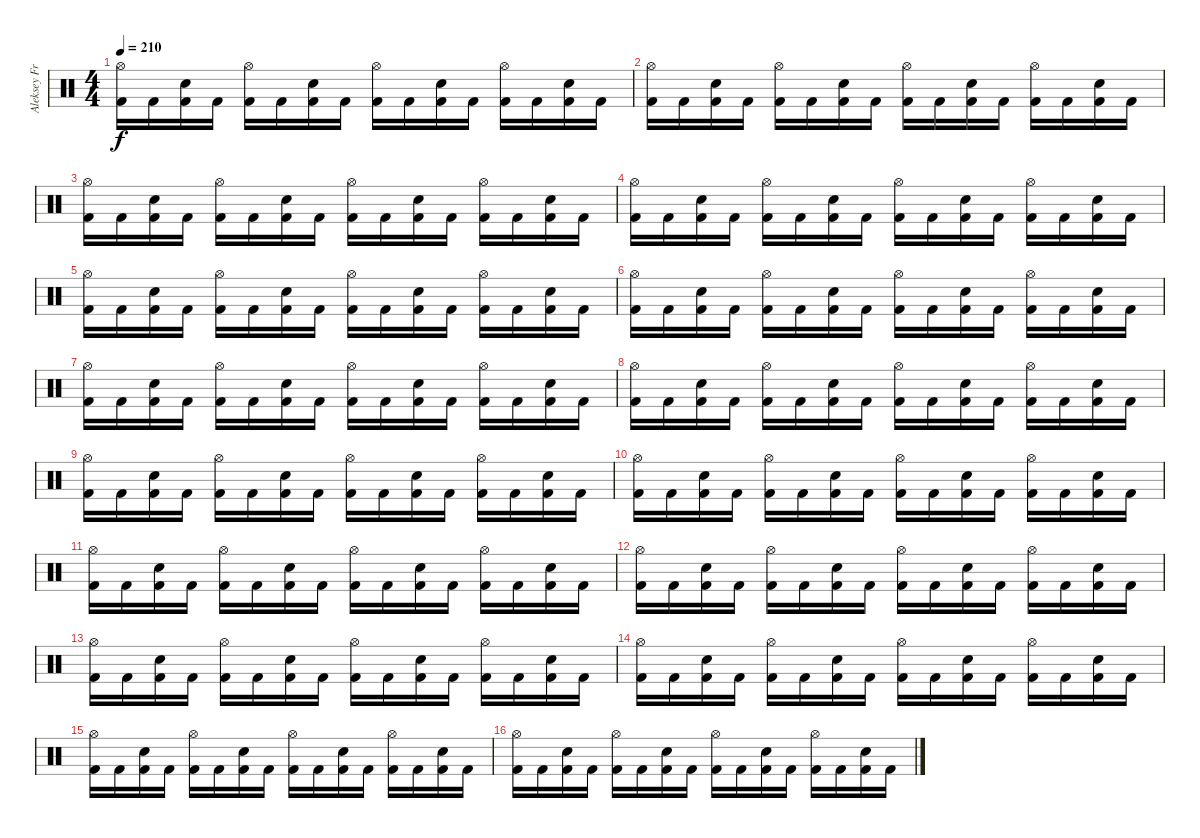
\track ("Aleksey Frolov" "Aleksey Fr") {instrument percussion}
\staff {score}
\articulation defaults
\ts (4 4)
\tempo 210
\clef neutral
\ks c
("Kick (hit) 2" "Hi-Hat (open)").16{dy f} "Kick (hit) 2".16 ("Kick (hit) 2" "Electric Snare (hit)").16 "Kick (hit) 2".16 ("Kick (hit) 2" "Hi-Hat (open)").16 "Kick (hit) 2".16 ("Kick (hit) 2" "Electric Snare (hit)").16 "Kick (hit) 2".16 ("Kick (hit) 2" "Hi-Hat (open)").16 "Kick (hit) 2".16 ("Kick (hit) 2" "Electric Snare (hit)").16 "Kick (hit) 2".16 ("Kick (hit) 2" "Hi-Hat (open)").16 "Kick (hit) 2".16 ("Kick (hit) 2" "Electric Snare (hit)").16 "Kick (hit) 2".16 |
("Kick (hit) 2" "Hi-Hat (open)").16 "Kick (hit) 2".16 ("Kick (hit) 2" "Electric Snare (hit)").16 "Kick (hit) 2".16 ("Kick (hit) 2" "Hi-Hat (open)").16 "Kick (hit) 2".16 ("Kick (hit) 2" "Electric Snare (hit)").16 "Kick (hit) 2".16 ("Kick (hit) 2" "Hi-Hat (open)").16 "Kick (hit) 2".16 ("Kick (hit) 2" "Electric Snare (hit)").16 "Kick (hit) 2".16 ("Kick (hit) 2" "Hi-Hat (open)").16 "Kick (hit) 2".16 ("Kick (hit) 2" "Electric Snare (hit)").16 "Kick (hit) 2".16 |
("Kick (hit) 2" "Hi-Hat (open)").16 "Kick (hit) 2".16 ("Kick (hit) 2" "Electric Snare (hit)").16 "Kick (hit) 2".16 ("Kick (hit) 2" "Hi-Hat (open)").16 "Kick (hit) 2".16 ("Kick (hit) 2" "Electric Snare (hit)").16 "Kick (hit) 2".16 ("Kick (hit) 2" "Hi-Hat (open)").16 "Kick (hit) 2".16 ("Kick (hit) 2" "Electric Snare (hit)").16 "Kick (hit) 2".16 ("Kick (hit) 2" "Hi-Hat (open)").16 "Kick (hit) 2".16 ("Kick (hit) 2" "Electric Snare (hit)").16 "Kick (hit) 2".16 |
("Kick (hit) 2" "Hi-Hat (open)").16 "Kick (hit) 2".16 ("Kick (hit) 2" "Electric Snare (hit)").16 "Kick (hit) 2".16 ("Kick (hit) 2" "Hi-Hat (open)").16 "Kick (hit) 2".16 ("Kick (hit) 2" "Electric Snare (hit)").16 "Kick (hit) 2".16 ("Kick (hit) 2" "Hi-Hat (open)").16 "Kick (hit) 2".16 ("Kick (hit) 2" "Electric Snare (hit)").16 "Kick (hit) 2".16 ("Kick (hit) 2" "Hi-Hat (open)").16 "Kick (hit) 2".16 ("Kick (hit) 2" "Electric Snare (hit)").16 "Kick (hit) 2".16 |
("Kick (hit) 2" "Hi-Hat (open)").16 "Kick (hit) 2".16 ("Kick (hit) 2" "Electric Snare (hit)").16 "Kick (hit) 2".16 ("Kick (hit) 2" "Hi-Hat (open)").16 "Kick (hit) 2".16 ("Kick (hit) 2" "Electric Snare (hit)").16 "Kick (hit) 2".16 ("Kick (hit) 2" "Hi-Hat (open)").16 "Kick (hit) 2".16 ("Kick (hit) 2" "Electric Snare (hit)").16 "Kick (hit) 2".16 ("Kick (hit) 2" "Hi-Hat (open)").16 "Kick (hit) 2".16 ("Kick (hit) 2" "Electric Snare (hit)").16 "Kick (hit) 2".16 |
("Kick (hit) 2" "Hi-Hat (open)").16 "Kick (hit) 2".16 ("Kick (hit) 2" "Electric Snare (hit)").16 "Kick (hit) 2".16 ("Kick (hit) 2" "Hi-Hat (open)").16 "Kick (hit) 2".16 ("Kick (hit) 2" "Electric Snare (hit)").16 "Kick (hit) 2".16 ("Kick (hit) 2" "Hi-Hat (open)").16 "Kick (hit) 2".16 ("Kick (hit) 2" "Electric Snare (hit)").16 "Kick (hit) 2".16 ("Kick (hit) 2" "Hi-Hat (open)").16 "Kick (hit) 2".16 ("Kick (hit) 2" "Electric Snare (hit)").16 "Kick (hit) 2".16 |
("Kick (hit) 2" "Hi-Hat (open)").16 "Kick (hit) 2".16 ("Kick (hit) 2" "Electric Snare (hit)").16 "Kick (hit) 2".16 ("Kick (hit) 2" "Hi-Hat (open)").16 "Kick (hit) 2".16 ("Kick (hit) 2" "Electric Snare (hit)").16 "Kick (hit) 2".16 ("Kick (hit) 2" "Hi-Hat (open)").16 "Kick (hit) 2".16 ("Kick (hit) 2" "Electric Snare (hit)").16 "Kick (hit) 2".16 ("Kick (hit) 2" "Hi-Hat (open)").16 "Kick (hit) 2".16 ("Kick (hit) 2" "Electric Snare (hit)").16 "Kick (hit) 2".16 |
("Kick (hit) 2" "Hi-Hat (open)").16 "Kick (hit) 2".16 ("Kick (hit) 2" "Electric Snare (hit)").16 "Kick (hit) 2".16 ("Kick (hit) 2" "Hi-Hat (open)").16 "Kick (hit) 2".16 ("Kick (hit) 2" "Electric Snare (hit)").16 "Kick (hit) 2".16 ("Kick (hit) 2" "Hi-Hat (open)").16 "Kick (hit) 2".16 ("Kick (hit) 2" "Electric Snare (hit)").16 "Kick (hit) 2".16 ("Kick (hit) 2" "Hi-Hat (open)").16 "Kick (hit) 2".16 ("Kick (hit) 2" "Electric Snare (hit)").16 "Kick (hit) 2".16 |
("Kick (hit) 2" "Hi-Hat (open)").16 "Kick (hit) 2".16 ("Kick (hit) 2" "Electric Snare (hit)").16 "Kick (hit) 2".16 ("Kick (hit) 2" "Hi-Hat (open)").16 "Kick (hit) 2".16 ("Kick (hit) 2" "Electric Snare (hit)").16 "Kick (hit) 2".16 ("Kick (hit) 2" "Hi-Hat (open)").16 "Kick (hit) 2".16 ("Kick (hit) 2" "Electric Snare (hit)").16 "Kick (hit) 2".16 ("Kick (hit) 2" "Hi-Hat (open)").16 "Kick (hit) 2".16 ("Kick (hit) 2" "Electric Snare (hit)").16 "Kick (hit) 2".16 |
("Kick (hit) 2" "Hi-Hat (open)").16 "Kick (hit) 2".16 ("Kick (hit) 2" "Electric Snare (hit)").16 "Kick (hit) 2".16 ("Kick (hit) 2" "Hi-Hat (open)").16 "Kick (hit) 2".16 ("Kick (hit) 2" "Electric Snare (hit)").16 "Kick (hit) 2".16 ("Kick (hit) 2" "Hi-Hat (open)").16 "Kick (hit) 2".16 ("Kick (hit) 2" "Electric Snare (hit)").16 "Kick (hit) 2".16 ("Kick (hit) 2" "Hi-Hat (open)").16 "Kick (hit) 2".16 ("Kick (hit) 2" "Electric Snare (hit)").16 "Kick (hit) 2".16 |
("Kick (hit) 2" "Hi-Hat (open)").16 "Kick (hit) 2".16 ("Kick (hit) 2" "Electric Snare (hit)").16 "Kick (hit) 2".16 ("Kick (hit) 2" "Hi-Hat (open)").16 "Kick (hit) 2".16 ("Kick (hit) 2" "Electric Snare (hit)").16 "Kick (hit) 2".16 ("Kick (hit) 2" "Hi-Hat (open)").16 "Kick (hit) 2".16 ("Kick (hit) 2" "Electric Snare (hit)").16 "Kick (hit) 2".16 ("Kick (hit) 2" "Hi-Hat (open)").16 "Kick (hit) 2".16 ("Kick (hit) 2" "Electric Snare (hit)").16 "Kick (hit) 2".16 |
("Kick (hit) 2" "Hi-Hat (open)").16 "Kick (hit) 2".16 ("Kick (hit) 2" "Electric Snare (hit)").16 "Kick (hit) 2".16 ("Kick (hit) 2" "Hi-Hat (open)").16 "Kick (hit) 2".16 ("Kick (hit) 2" "Electric Snare (hit)").16 "Kick (hit) 2".16 ("Kick (hit) 2" "Hi-Hat (open)").16 "Kick (hit) 2".16 ("Kick (hit) 2" "Electric Snare (hit)").16 "Kick (hit) 2".16 ("Kick (hit) 2" "Hi-Hat (open)").16 "Kick (hit) 2".16 ("Kick (hit) 2" "Electric Snare (hit)").16 "Kick (hit) 2".16 |
("Kick (hit) 2" "Hi-Hat (open)").16 "Kick (hit) 2".16 ("Kick (hit) 2" "Electric Snare (hit)").16 "Kick (hit) 2".16 ("Kick (hit) 2" "Hi-Hat (open)").16 "Kick (hit) 2".16 ("Kick (hit) 2" "Electric Snare (hit)").16 "Kick (hit) 2".16 ("Kick (hit) 2" "Hi-Hat (open)").16 "Kick (hit) 2".16 ("Kick (hit) 2" "Electric Snare (hit)").16 "Kick (hit) 2".16 ("Kick (hit) 2" "Hi-Hat (open)").16 "Kick (hit) 2".16 ("Kick (hit) 2" "Electric Snare (hit)").16 "Kick (hit) 2".16 |
("Kick (hit) 2" "Hi-Hat (open)").16 "Kick (hit) 2".16 ("Kick (hit) 2" "Electric Snare (hit)").16 "Kick (hit) 2".16 ("Kick (hit) 2" "Hi-Hat (open)").16 "Kick (hit) 2".16 ("Kick (hit) 2" "Electric Snare (hit)").16 "Kick (hit) 2".16 ("Kick (hit) 2" "Hi-Hat (open)").16 "Kick (hit) 2".16 ("Kick (hit) 2" "Electric Snare (hit)").16 "Kick (hit) 2".16 ("Kick (hit) 2" "Hi-Hat (open)").16 "Kick (hit) 2".16 ("Kick (hit) 2" "Electric Snare (hit)").16 "Kick (hit) 2".16 |
("Kick (hit) 2" "Hi-Hat (open)").16 "Kick (hit) 2".16 ("Kick (hit) 2" "Electric Snare (hit)").16 "Kick (hit) 2".16 ("Kick (hit) 2" "Hi-Hat (open)").16 "Kick (hit) 2".16 ("Kick (hit) 2" "Electric Snare (hit)").16 "Kick (hit) 2".16 ("Kick (hit) 2" "Hi-Hat (open)").16 "Kick (hit) 2".16 ("Kick (hit) 2" "Electric Snare (hit)").16 "Kick (hit) 2".16 ("Kick (hit) 2" "Hi-Hat (open)").16 "Kick (hit) 2".16 ("Kick (hit) 2" "Electric Snare (hit)").16 "Kick (hit) 2".16 |
("Kick (hit) 2" "Hi-Hat (open)").16 "Kick (hit) 2".16 ("Kick (hit) 2" "Electric Snare (hit)").16 "Kick (hit) 2".16 ("Kick (hit) 2" "Hi-Hat (open)").16 "Kick (hit) 2".16 ("Kick (hit) 2" "Electric Snare (hit)").16 "Kick (hit) 2".16 ("Kick (hit) 2" "Hi-Hat (open)").16 "Kick (hit) 2".16 ("Kick (hit) 2" "Electric Snare (hit)").16 "Kick (hit) 2".16 ("Kick (hit) 2" "Hi-Hat (open)").16 "Kick (hit) 2".16 ("Kick (hit) 2" "Electric Snare (hit)").16 "Kick (hit) 2".16
